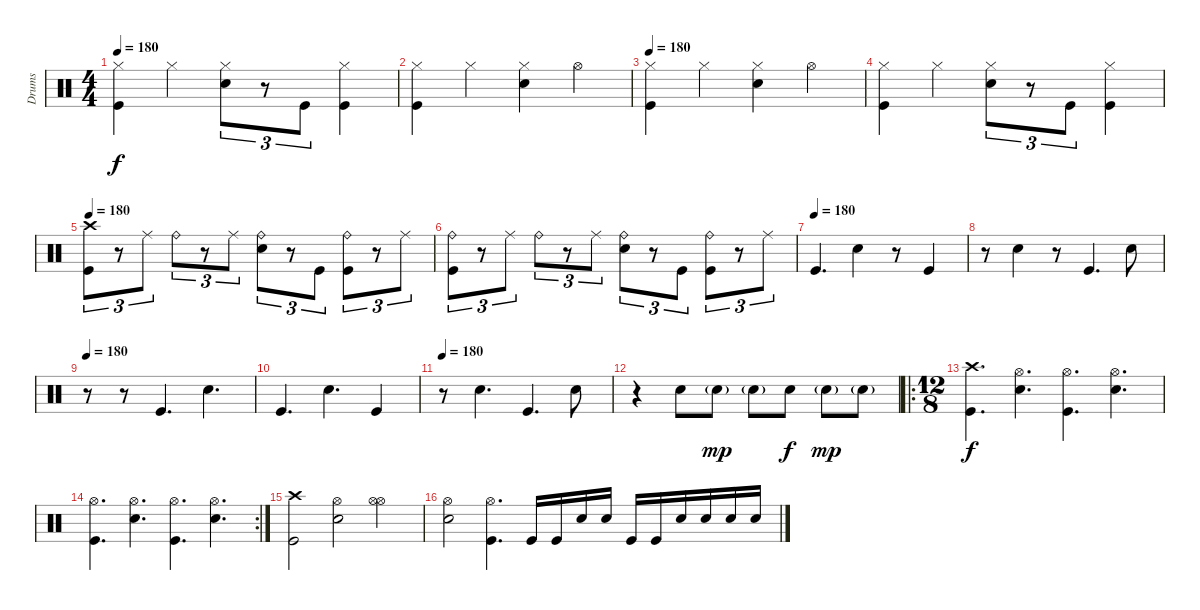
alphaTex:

\track ("Drums" "Drums") {instrument percussion}
\staff {score}
\articulation defaults
\ts (4 4)
\tempo 180
\clef neutral
\ks c
("Hi-Hat (closed)" "Kick (hit)").4{dy f} "Hi-Hat (closed)".4 ("Hi-Hat (closed)" "Electric Snare (hit)").8{tu (3 2)} r.8{tu (3 2)} "Kick (hit)".8{tu (3 2)} ("Hi-Hat (closed)" "Kick (hit)").4 |
("Hi-Hat (closed)" "Kick (hit)").4 "Hi-Hat (closed)".4 ("Hi-Hat (closed)" "Electric Snare (hit)").4 "Hi-Hat (open)".4 |
\tempo 180
("Hi-Hat (closed)" "Kick (hit)").4 "Hi-Hat (closed)".4 ("Hi-Hat (closed)" "Electric Snare (hit)").4 "Hi-Hat (open)".4 |
("Hi-Hat (closed)" "Kick (hit)").4 "Hi-Hat (closed)".4 ("Hi-Hat (closed)" "Electric Snare (hit)").8{tu (3 2)} r.8{tu (3 2)} "Kick (hit)".8{tu (3 2)} ("Hi-Hat (closed)" "Kick (hit)").4 |
\tempo 180
("Crash high (hit)" "Kick (hit)").8{tu (3 2)} r.8{tu (3 2)} "Ride (middle)".8{tu (3 2)} "Ride (bell)".8{tu (3 2)} r.8{tu (3 2)} "Ride (middle)".8{tu (3 2)} ("Ride (bell)" "Electric Snare (hit)").8{tu (3 2)} r.8{tu (3 2)} "Kick (hit)".8{tu (3 2)} ("Ride (bell)" "Kick (hit)").8{tu (3 2)} r.8{tu (3 2)} "Ride (middle)".8{tu (3 2)} |
("Ride (bell)" "Kick (hit)").8{tu (3 2)} r.8{tu (3 2)} "Ride (middle)".8{tu (3 2)} "Ride (bell)".8{tu (3 2)} r.8{tu (3 2)} "Ride (middle)".8{tu (3 2)} ("Ride (bell)" "Electric Snare (hit)").8{tu (3 2)} r.8{tu (3 2)} "Kick (hit)".8{tu (3 2)} ("Ride (bell)" "Kick (hit)").8{tu (3 2)} r.8{tu (3 2)} "Ride (middle)".8{tu (3 2)} |
\tempo (180)
"Kick (hit)".4{d} "Electric Snare (hit)".4 r.8 "Kick (hit)".4 |
r.8 "Electric Snare (hit)".4 r.8 "Kick (hit)".4{d} "Electric Snare (hit)".8 |
\tempo 180
r.8 r.8 "Kick (hit)".4{d} "Electric Snare (hit)".4{d} |
"Kick (hit)".4{d} "Electric Snare (hit)".4{d} "Kick (hit)".4 |
\tempo 180
r.8 "Electric Snare (hit)".4{d} "Kick (hit)".4{d} "Electric Snare (hit)".8 |
r.4 "Electric Snare (hit)".8 "Electric Snare (hit)"{g}.8{dy mp} "Electric Snare (hit)"{g}.8 "Electric Snare (hit)".8{dy f} "Electric Snare (hit)"{g}.8{dy mp} "Electric Snare (hit)"{g}.8 |
\ro
\ts (12 8)
("Crash high (hit)" "Kick (hit)").4{d dy f} ("Hi-Hat (open)" "Electric Snare (hit)").4{d} ("Hi-Hat (open)" "Kick (hit)").4{d} ("Hi-Hat (open)" "Electric Snare (hit)").4{d} |
\rc 2
("Hi-Hat (open)" "Kick (hit)").4{d} ("Hi-Hat (open)" "Electric Snare (hit)").4{d} ("Hi-Hat (open)" "Kick (hit)").4{d} ("Hi-Hat (open)" "Electric Snare (hit)").4{d} |
("Crash high (hit)" "Kick (hit)").2 ("Hi-Hat (open)" "Electric Snare (hit)").2 ("Hi-Hat (open)" "Hi-Hat (open)").2 |
("Hi-Hat (open)" "Electric Snare (hit)").2 ("Hi-Hat (open)" "Kick (hit)").4{d} "Kick (hit)".16 "Kick (hit)".16 "Electric Snare (hit)".16 "Electric Snare (hit)".16 "Kick (hit)".16 "Kick (hit)".16 "Electric Snare (hit)".16 "Electric Snare (hit)".16 "Electric Snare (hit)".16 "Electric Snare (hit)".16
